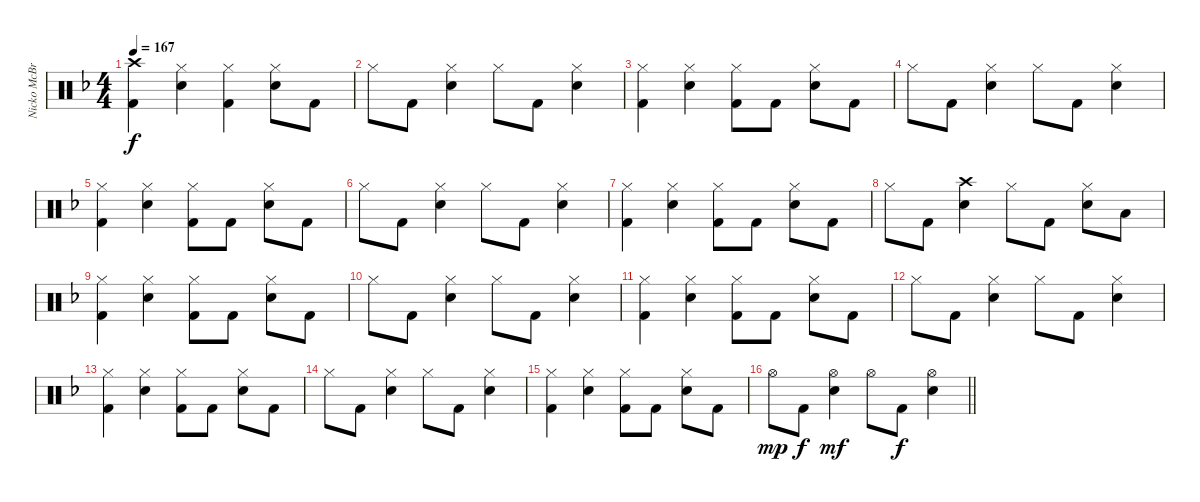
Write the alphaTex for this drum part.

\track ("Nicko McBrain" "Nicko McBr") {instrument percussion}
\staff {score}
\articulation defaults
\ts (4 4)
\tempo 167
\clef neutral
\ks f
("Crash high (hit)" "Kick (hit) 2").4{dy f} ("Hi-Hat (closed)" "Electric Snare (hit)").4 ("Hi-Hat (closed)" "Kick (hit) 2").4 ("Hi-Hat (closed)" "Electric Snare (hit)").8 "Kick (hit) 2".8 |
"Hi-Hat (closed)".8 "Kick (hit) 2".8 ("Hi-Hat (closed)" "Electric Snare (hit)").4 "Hi-Hat (closed)".8 "Kick (hit) 2".8 ("Hi-Hat (closed)" "Electric Snare (hit)").4 |
("Hi-Hat (closed)" "Kick (hit) 2").4 ("Hi-Hat (closed)" "Electric Snare (hit)").4 ("Hi-Hat (closed)" "Kick (hit) 2").8 "Kick (hit) 2".8 ("Hi-Hat (closed)" "Electric Snare (hit)").8 "Kick (hit) 2".8 |
"Hi-Hat (closed)".8 "Kick (hit) 2".8 ("Hi-Hat (closed)" "Electric Snare (hit)").4 "Hi-Hat (closed)".8 "Kick (hit) 2".8 ("Hi-Hat (closed)" "Electric Snare (hit)").4 |
("Hi-Hat (closed)" "Kick (hit) 2").4 ("Hi-Hat (closed)" "Electric Snare (hit)").4 ("Hi-Hat (closed)" "Kick (hit) 2").8 "Kick (hit) 2".8 ("Hi-Hat (closed)" "Electric Snare (hit)").8 "Kick (hit) 2".8 |
"Hi-Hat (closed)".8 "Kick (hit) 2".8 ("Hi-Hat (closed)" "Electric Snare (hit)").4 "Hi-Hat (closed)".8 "Kick (hit) 2".8 ("Hi-Hat (closed)" "Electric Snare (hit)").4 |
("Hi-Hat (closed)" "Kick (hit) 2").4 ("Hi-Hat (closed)" "Electric Snare (hit)").4 ("Hi-Hat (closed)" "Kick (hit) 2").8 "Kick (hit) 2".8 ("Hi-Hat (closed)" "Electric Snare (hit)").8 "Kick (hit) 2".8 |
"Hi-Hat (closed)".8 "Kick (hit) 2".8 ("Crash high (hit)" "Electric Snare (hit)").4 "Hi-Hat (closed)".8 "Kick (hit) 2".8 ("Hi-Hat (closed)" "Electric Snare (hit)").8 "Low Tom (hit)".8 |
("Hi-Hat (closed)" "Kick (hit) 2").4 ("Hi-Hat (closed)" "Electric Snare (hit)").4 ("Hi-Hat (closed)" "Kick (hit) 2").8 "Kick (hit) 2".8 ("Hi-Hat (closed)" "Electric Snare (hit)").8 "Kick (hit) 2".8 |
"Hi-Hat (closed)".8 "Kick (hit) 2".8 ("Hi-Hat (closed)" "Electric Snare (hit)").4 "Hi-Hat (closed)".8 "Kick (hit) 2".8 ("Hi-Hat (closed)" "Electric Snare (hit)").4 |
("Hi-Hat (closed)" "Kick (hit) 2").4 ("Hi-Hat (closed)" "Electric Snare (hit)").4 ("Hi-Hat (closed)" "Kick (hit) 2").8 "Kick (hit) 2".8 ("Hi-Hat (closed)" "Electric Snare (hit)").8 "Kick (hit) 2".8 |
"Hi-Hat (closed)".8 "Kick (hit) 2".8 ("Hi-Hat (closed)" "Electric Snare (hit)").4 "Hi-Hat (closed)".8 "Kick (hit) 2".8 ("Hi-Hat (closed)" "Electric Snare (hit)").4 |
("Hi-Hat (closed)" "Kick (hit) 2").4 ("Hi-Hat (closed)" "Electric Snare (hit)").4 ("Hi-Hat (closed)" "Kick (hit) 2").8 "Kick (hit) 2".8 ("Hi-Hat (closed)" "Electric Snare (hit)").8 "Kick (hit) 2".8 |
"Hi-Hat (closed)".8 "Kick (hit) 2".8 ("Hi-Hat (closed)" "Electric Snare (hit)").4 "Hi-Hat (closed)".8 "Kick (hit) 2".8 ("Hi-Hat (closed)" "Electric Snare (hit)").4 |
("Hi-Hat (closed)" "Kick (hit) 2").4 ("Hi-Hat (closed)" "Electric Snare (hit)").4 ("Hi-Hat (closed)" "Kick (hit) 2").8 "Kick (hit) 2".8 ("Hi-Hat (closed)" "Electric Snare (hit)").8 "Kick (hit) 2".8 |
\barLineRight lightlight "Hi-Hat (open)".8{dy mp} "Kick (hit) 2".8{dy f}
("Hi-Hat (open)" "Electric Snare (hit)").4{dy mf} "Hi-Hat (open)".8 "Kick (hit) 2".8{dy f} ("Hi-Hat (open)" "Electric Snare (hit)").4
